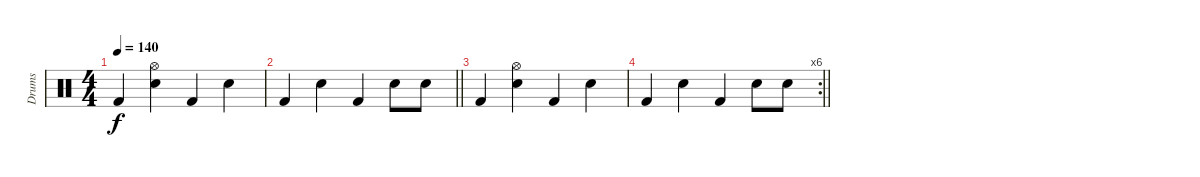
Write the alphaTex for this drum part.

\track ("Drums" "Drums") {instrument percussion}
\staff {score}
\articulation defaults
\ts (4 4)
\tempo 140
\clef neutral
\ks c "Kick (hit) 2".4{dy f}
("Snare (hit) 2" "Hi-Hat (open)").4 "Kick (hit) 2".4 "Snare (hit) 2".4 |
\barLineRight lightlight "Kick (hit) 2".4 "Snare (hit) 2".4 "Kick (hit) 2".4 "Snare (hit) 2".8 "Snare (hit) 2".8
|
"Kick (hit) 2".4 ("Snare (hit) 2" "Hi-Hat (open)").4 "Kick (hit) 2".4 "Snare (hit) 2".4 |
\rc 6
\barLineRight lightlight "Kick (hit) 2".4 "Snare (hit) 2".4 "Kick (hit) 2".4 "Snare (hit) 2".8 "Snare (hit) 2".8
